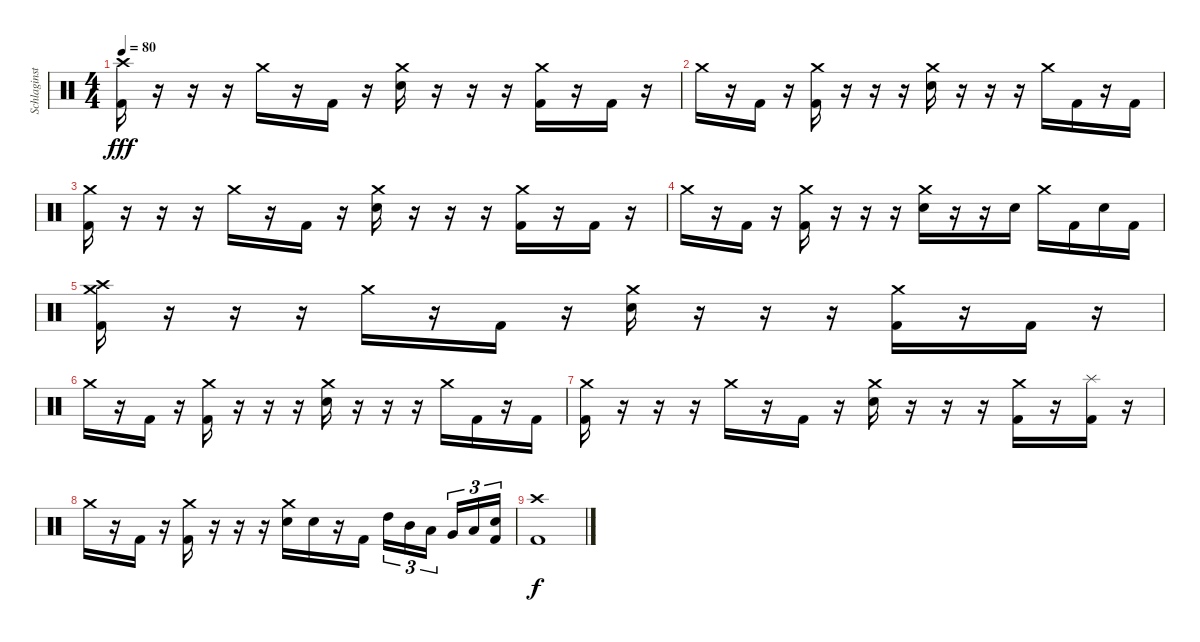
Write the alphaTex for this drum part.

\track ("Schlaginstrumente - Auswahl" "Schlaginst") {instrument percussion}
\staff {score}
\articulation defaults
\ts (4 4)
\tempo 80
\clef neutral
\ks c
("Crash high (hit)" "Kick (hit) 2").16{dy fff} r.16 r.16 r.16 "Crash medium (hit)".16 r.16 "Kick (hit) 2".16 r.16 ("Crash medium (hit)" "Electric Snare (hit)").16 r.16 r.16 r.16 ("Crash medium (hit)" "Kick (hit) 2").16 r.16 "Kick (hit) 2".16 r.16 |
"Crash medium (hit)".16 r.16 "Kick (hit) 2".16 r.16 ("Crash medium (hit)" "Kick (hit) 2").16 r.16 r.16 r.16 ("Crash medium (hit)" "Electric Snare (hit)").16 r.16 r.16 r.16 "Crash medium (hit)".16 "Kick (hit) 2".16 r.16 "Kick (hit) 2".16 |
("Crash medium (hit)" "Kick (hit) 2").16 r.16 r.16 r.16 "Crash medium (hit)".16 r.16 "Kick (hit) 2".16 r.16 ("Crash medium (hit)" "Electric Snare (hit)").16 r.16 r.16 r.16 ("Crash medium (hit)" "Kick (hit) 2").16 r.16 "Kick (hit) 2".16 r.16 |
"Crash medium (hit)".16 r.16 "Kick (hit) 2".16 r.16 ("Crash medium (hit)" "Kick (hit) 2").16 r.16 r.16 r.16 ("Crash medium (hit)" "Electric Snare (hit)").16 r.16 r.16 "Electric Snare (hit)".16 "Crash medium (hit)".16 "Kick (hit) 2".16 "Electric Snare (hit)".16 "Kick (hit) 2".16 |
("Crash high (hit)" "Crash medium (hit)" "Kick (hit) 2").16 r.16 r.16 r.16 "Crash medium (hit)".16 r.16 "Kick (hit) 2".16 r.16 ("Crash medium (hit)" "Electric Snare (hit)").16 r.16 r.16 r.16 ("Crash medium (hit)" "Kick (hit) 2").16 r.16 "Kick (hit) 2".16 r.16 |
"Crash medium (hit)".16 r.16 "Kick (hit) 2".16 r.16 ("Crash medium (hit)" "Kick (hit) 2").16 r.16 r.16 r.16 ("Crash medium (hit)" "Electric Snare (hit)").16 r.16 r.16 r.16 "Crash medium (hit)".16 "Kick (hit) 2".16 r.16 "Kick (hit) 2".16 |
("Crash medium (hit)" "Kick (hit) 2").16 r.16 r.16 r.16 "Crash medium (hit)".16 r.16 "Kick (hit) 2".16 r.16 ("Crash medium (hit)" "Electric Snare (hit)").16 r.16 r.16 r.16 ("Crash medium (hit)" "Kick (hit) 2").16 r.16 ("Splash (hit)" "Kick (hit) 2").16 r.16 |
"Crash medium (hit)".16 r.16 "Kick (hit) 2".16 r.16 ("Crash medium (hit)" "Kick (hit) 2").16 r.16 r.16 r.16 ("Crash medium (hit)" "Electric Snare (hit)").16 "Electric Snare (hit)".16 r.16 "Kick (hit) 2".16 "High Tom (hit)".16{tu (3 2)} "Mid Tom (hit)".16{tu (3 2)} "Low Tom (hit)".16{tu (3 2) beam splitsecondary} "Very Low Tom (hit)".16{tu (3 2)} "Low Floor Tom (hit)".16{tu (3 2)} ("Electric Snare (hit)" "Kick (hit) 2").16{tu (3 2)} |
("Crash high (hit)" "Kick (hit) 2").1{dy f}
